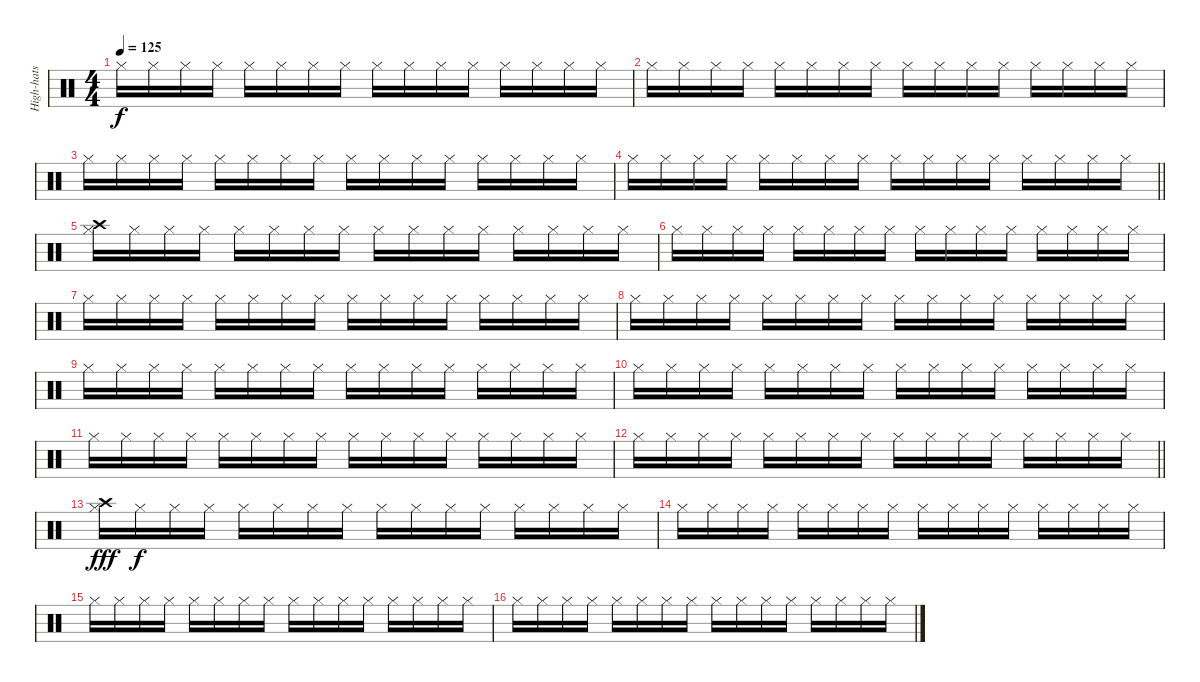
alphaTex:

\track ("High-hats" "High-hats") {instrument percussion}
\staff {score}
\articulation defaults
\ts (4 4)
\tempo 125
\clef neutral
\ks c "Hi-Hat (closed)".16{dy f} "Hi-Hat (closed)".16 "Hi-Hat (closed)".16 "Hi-Hat (closed)".16 "Hi-Hat (closed)".16 "Hi-Hat (closed)".16 "Hi-Hat (closed)".16 "Hi-Hat (closed)".16 "Hi-Hat (closed)".16 "Hi-Hat (closed)".16 "Hi-Hat (closed)".16 "Hi-Hat (closed)".16 "Hi-Hat (closed)".16 "Hi-Hat (closed)".16 "Hi-Hat (closed)".16 "Hi-Hat (closed)".16
|
"Hi-Hat (closed)".16 "Hi-Hat (closed)".16 "Hi-Hat (closed)".16 "Hi-Hat (closed)".16 "Hi-Hat (closed)".16 "Hi-Hat (closed)".16 "Hi-Hat (closed)".16 "Hi-Hat (closed)".16 "Hi-Hat (closed)".16 "Hi-Hat (closed)".16 "Hi-Hat (closed)".16 "Hi-Hat (closed)".16 "Hi-Hat (closed)".16 "Hi-Hat (closed)".16 "Hi-Hat (closed)".16 "Hi-Hat (closed)".16 |
"Hi-Hat (closed)".16 "Hi-Hat (closed)".16 "Hi-Hat (closed)".16 "Hi-Hat (closed)".16 "Hi-Hat (closed)".16 "Hi-Hat (closed)".16 "Hi-Hat (closed)".16 "Hi-Hat (closed)".16 "Hi-Hat (closed)".16 "Hi-Hat (closed)".16 "Hi-Hat (closed)".16 "Hi-Hat (closed)".16 "Hi-Hat (closed)".16 "Hi-Hat (closed)".16 "Hi-Hat (closed)".16 "Hi-Hat (closed)".16 |
\barLineRight lightlight "Hi-Hat (closed)".16 "Hi-Hat (closed)".16 "Hi-Hat (closed)".16 "Hi-Hat (closed)".16 "Hi-Hat (closed)".16 "Hi-Hat (closed)".16 "Hi-Hat (closed)".16 "Hi-Hat (closed)".16 "Hi-Hat (closed)".16 "Hi-Hat (closed)".16 "Hi-Hat (closed)".16 "Hi-Hat (closed)".16 "Hi-Hat (closed)".16 "Hi-Hat (closed)".16 "Hi-Hat (closed)".16 "Hi-Hat (closed)".16
|
("Hi-Hat (closed)" "Crash high (hit)").16 "Hi-Hat (closed)".16 "Hi-Hat (closed)".16 "Hi-Hat (closed)".16 "Hi-Hat (closed)".16 "Hi-Hat (closed)".16 "Hi-Hat (closed)".16 "Hi-Hat (closed)".16 "Hi-Hat (closed)".16 "Hi-Hat (closed)".16 "Hi-Hat (closed)".16 "Hi-Hat (closed)".16 "Hi-Hat (closed)".16 "Hi-Hat (closed)".16 "Hi-Hat (closed)".16 "Hi-Hat (closed)".16 |
"Hi-Hat (closed)".16 "Hi-Hat (closed)".16 "Hi-Hat (closed)".16 "Hi-Hat (closed)".16 "Hi-Hat (closed)".16 "Hi-Hat (closed)".16 "Hi-Hat (closed)".16 "Hi-Hat (closed)".16 "Hi-Hat (closed)".16 "Hi-Hat (closed)".16 "Hi-Hat (closed)".16 "Hi-Hat (closed)".16 "Hi-Hat (closed)".16 "Hi-Hat (closed)".16 "Hi-Hat (closed)".16 "Hi-Hat (closed)".16 |
"Hi-Hat (closed)".16 "Hi-Hat (closed)".16 "Hi-Hat (closed)".16 "Hi-Hat (closed)".16 "Hi-Hat (closed)".16 "Hi-Hat (closed)".16 "Hi-Hat (closed)".16 "Hi-Hat (closed)".16 "Hi-Hat (closed)".16 "Hi-Hat (closed)".16 "Hi-Hat (closed)".16 "Hi-Hat (closed)".16 "Hi-Hat (closed)".16 "Hi-Hat (closed)".16 "Hi-Hat (closed)".16 "Hi-Hat (closed)".16 |
"Hi-Hat (closed)".16 "Hi-Hat (closed)".16 "Hi-Hat (closed)".16 "Hi-Hat (closed)".16 "Hi-Hat (closed)".16 "Hi-Hat (closed)".16 "Hi-Hat (closed)".16 "Hi-Hat (closed)".16 "Hi-Hat (closed)".16 "Hi-Hat (closed)".16 "Hi-Hat (closed)".16 "Hi-Hat (closed)".16 "Hi-Hat (closed)".16 "Hi-Hat (closed)".16 "Hi-Hat (closed)".16 "Hi-Hat (closed)".16 |
"Hi-Hat (closed)".16 "Hi-Hat (closed)".16 "Hi-Hat (closed)".16 "Hi-Hat (closed)".16 "Hi-Hat (closed)".16 "Hi-Hat (closed)".16 "Hi-Hat (closed)".16 "Hi-Hat (closed)".16 "Hi-Hat (closed)".16 "Hi-Hat (closed)".16 "Hi-Hat (closed)".16 "Hi-Hat (closed)".16 "Hi-Hat (closed)".16 "Hi-Hat (closed)".16 "Hi-Hat (closed)".16 "Hi-Hat (closed)".16 |
"Hi-Hat (closed)".16 "Hi-Hat (closed)".16 "Hi-Hat (closed)".16 "Hi-Hat (closed)".16 "Hi-Hat (closed)".16 "Hi-Hat (closed)".16 "Hi-Hat (closed)".16 "Hi-Hat (closed)".16 "Hi-Hat (closed)".16 "Hi-Hat (closed)".16 "Hi-Hat (closed)".16 "Hi-Hat (closed)".16 "Hi-Hat (closed)".16 "Hi-Hat (closed)".16 "Hi-Hat (closed)".16 "Hi-Hat (closed)".16 |
"Hi-Hat (closed)".16 "Hi-Hat (closed)".16 "Hi-Hat (closed)".16 "Hi-Hat (closed)".16 "Hi-Hat (closed)".16 "Hi-Hat (closed)".16 "Hi-Hat (closed)".16 "Hi-Hat (closed)".16 "Hi-Hat (closed)".16 "Hi-Hat (closed)".16 "Hi-Hat (closed)".16 "Hi-Hat (closed)".16 "Hi-Hat (closed)".16 "Hi-Hat (closed)".16 "Hi-Hat (closed)".16 "Hi-Hat (closed)".16 |
\barLineRight lightlight "Hi-Hat (closed)".16 "Hi-Hat (closed)".16 "Hi-Hat (closed)".16 "Hi-Hat (closed)".16 "Hi-Hat (closed)".16 "Hi-Hat (closed)".16 "Hi-Hat (closed)".16 "Hi-Hat (closed)".16 "Hi-Hat (closed)".16 "Hi-Hat (closed)".16 "Hi-Hat (closed)".16 "Hi-Hat (closed)".16 "Hi-Hat (closed)".16 "Hi-Hat (closed)".16 "Hi-Hat (closed)".16 "Hi-Hat (closed)".16
|
("Hi-Hat (closed)" "Crash high (hit)").16{dy fff} "Hi-Hat (closed)".16{dy f} "Hi-Hat (closed)".16 "Hi-Hat (closed)".16 "Hi-Hat (closed)".16 "Hi-Hat (closed)".16 "Hi-Hat (closed)".16 "Hi-Hat (closed)".16 "Hi-Hat (closed)".16 "Hi-Hat (closed)".16 "Hi-Hat (closed)".16 "Hi-Hat (closed)".16 "Hi-Hat (closed)".16 "Hi-Hat (closed)".16 "Hi-Hat (closed)".16 "Hi-Hat (closed)".16 |
"Hi-Hat (closed)".16 "Hi-Hat (closed)".16 "Hi-Hat (closed)".16 "Hi-Hat (closed)".16 "Hi-Hat (closed)".16 "Hi-Hat (closed)".16 "Hi-Hat (closed)".16 "Hi-Hat (closed)".16 "Hi-Hat (closed)".16 "Hi-Hat (closed)".16 "Hi-Hat (closed)".16 "Hi-Hat (closed)".16 "Hi-Hat (closed)".16 "Hi-Hat (closed)".16 "Hi-Hat (closed)".16 "Hi-Hat (closed)".16 |
"Hi-Hat (closed)".16 "Hi-Hat (closed)".16 "Hi-Hat (closed)".16 "Hi-Hat (closed)".16 "Hi-Hat (closed)".16 "Hi-Hat (closed)".16 "Hi-Hat (closed)".16 "Hi-Hat (closed)".16 "Hi-Hat (closed)".16 "Hi-Hat (closed)".16 "Hi-Hat (closed)".16 "Hi-Hat (closed)".16 "Hi-Hat (closed)".16 "Hi-Hat (closed)".16 "Hi-Hat (closed)".16 "Hi-Hat (closed)".16 |
"Hi-Hat (closed)".16 "Hi-Hat (closed)".16 "Hi-Hat (closed)".16 "Hi-Hat (closed)".16 "Hi-Hat (closed)".16 "Hi-Hat (closed)".16 "Hi-Hat (closed)".16 "Hi-Hat (closed)".16 "Hi-Hat (closed)".16 "Hi-Hat (closed)".16 "Hi-Hat (closed)".16 "Hi-Hat (closed)".16 "Hi-Hat (closed)".16 "Hi-Hat (closed)".16 "Hi-Hat (closed)".16 "Hi-Hat (closed)".16
